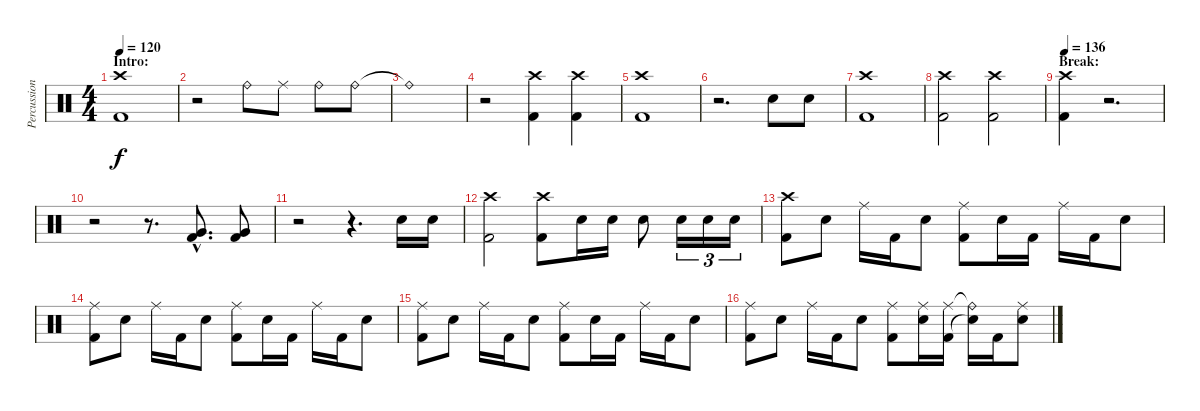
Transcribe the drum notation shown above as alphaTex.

\track ("Percussion" "Percussion") {instrument percussion}
\staff {score}
\articulation defaults
\ts (4 4)
\section ("" "Intro:")
\tempo 120
\tempo 160
\tempo 120
\clef neutral
\ks c
("Crash high (hit)" "Kick (hit) 2").1{dy f} |
r.2 "Ride (bell)".8 "Ride (middle)".8 "Ride (bell)".8 "Ride (bell)".8 |
"Ride (bell)"{t}.1 |
r.2 ("Crash high (hit)" "Kick (hit) 2").4 ("Crash high (hit)" "Kick (hit) 2").4 |
("Crash high (hit)" "Kick (hit) 2").1 |
r.2{d} "Electric Snare (hit)".8 "Electric Snare (hit)".8 |
("Crash high (hit)" "Kick (hit) 2").1 |
("Crash high (hit)" "Kick (hit) 2").2 ("Crash high (hit)" "Kick (hit) 2").2 |
\section ("" "Break:")
\tempo 136
("Crash high (hit)" "Kick (hit) 2").4 r.2{d} |
r.2 r.8{d} ("Very Low Tom (hit)"{hac} "Kick (hit) 2"{hac}).8{d} ("Very Low Tom (hit)" "Kick (hit) 2").8 |
r.2 r.4{d} "Electric Snare (hit)".16 "Electric Snare (hit)".16 |
("Crash high (hit)" "Kick (hit) 2").2 ("Crash high (hit)" "Kick (hit) 2").8 "Electric Snare (hit)".16 "Electric Snare (hit)".16 "Electric Snare (hit)".8 "Electric Snare (hit)".16{tu (3 2)} "Electric Snare (hit)".16{tu (3 2)} "Electric Snare (hit)".16{tu (3 2)} |
("Crash high (hit)" "Kick (hit) 2").8 "Electric Snare (hit)".8 "Ride (middle)".16 "Kick (hit) 2".16 "Electric Snare (hit)".8 ("Ride (middle)" "Kick (hit) 2").8 "Electric Snare (hit)".16 "Kick (hit) 2".16 "Ride (middle)".16 "Kick (hit) 2".16 "Electric Snare (hit)".8 |
("Ride (middle)" "Kick (hit) 2").8 "Electric Snare (hit)".8 "Ride (middle)".16 "Kick (hit) 2".16 "Electric Snare (hit)".8 ("Ride (middle)" "Kick (hit) 2").8 "Electric Snare (hit)".16 "Kick (hit) 2".16 "Ride (middle)".16 "Kick (hit) 2".16 "Electric Snare (hit)".8 |
("Ride (middle)" "Kick (hit) 2").8 "Electric Snare (hit)".8 "Ride (middle)".16 "Kick (hit) 2".16 "Electric Snare (hit)".8 ("Ride (middle)" "Kick (hit) 2").8 "Electric Snare (hit)".16 "Kick (hit) 2".16 "Ride (middle)".16 "Kick (hit) 2".16 "Electric Snare (hit)".8 |
("Ride (middle)" "Kick (hit) 2").8 "Electric Snare (hit)".8 "Ride (middle)".16 "Kick (hit) 2".16 "Electric Snare (hit)".8 ("Ride (middle)" "Kick (hit) 2").8 ("Ride (middle)" "Electric Snare (hit)").16 ("Ride (middle)" "Kick (hit) 2").16 ("Ride (bell)"{t} "Snare (hit)"{t}).16 "Kick (hit) 2".16 ("Ride (middle)" "Electric Snare (hit)").8
